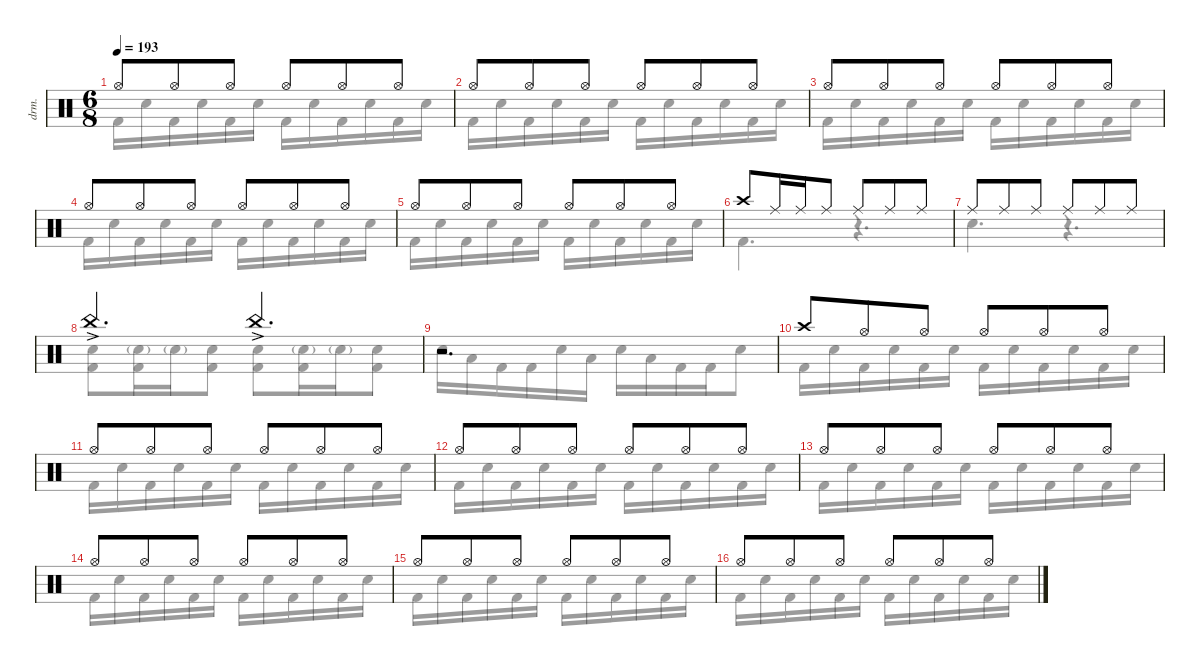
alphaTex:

\defaultSystemsLayout 4
\hideDynamics
\bracketExtendMode nobrackets
\otherSystemsTrackNameOrientation horizontal
\track ("B. Richardson Drums" "drm.") {instrument percussion}
\staff {score}
\articulation defaults
\voice
\ts (6 8)
\tempo 193
\clef neutral
\ks c "Hi-Hat (open)".8{dy mf beam Up} "Hi-Hat (open)".8{beam Up} "Hi-Hat (open)".8{beam Up} "Hi-Hat (open)".8{beam Up} "Hi-Hat (open)".8{beam Up} "Hi-Hat (open)".8{beam Up}
|
"Hi-Hat (open)".8{beam Up} "Hi-Hat (open)".8{beam Up} "Hi-Hat (open)".8{beam Up} "Hi-Hat (open)".8{beam Up} "Hi-Hat (open)".8{beam Up} "Hi-Hat (open)".8{beam Up} |
"Hi-Hat (open)".8{beam Up} "Hi-Hat (open)".8{beam Up} "Hi-Hat (open)".8{beam Up} "Hi-Hat (open)".8{beam Up} "Hi-Hat (open)".8{beam Up} "Hi-Hat (open)".8{beam Up} |
"Hi-Hat (open)".8{beam Up} "Hi-Hat (open)".8{beam Up} "Hi-Hat (open)".8{beam Up} "Hi-Hat (open)".8{beam Up} "Hi-Hat (open)".8{beam Up} "Hi-Hat (open)".8{beam Up} |
"Hi-Hat (open)".8{beam Up} "Hi-Hat (open)".8{beam Up} "Hi-Hat (open)".8{beam Up} "Hi-Hat (open)".8{beam Up} "Hi-Hat (open)".8{beam Up} "Hi-Hat (open)".8{beam Up} |
"Crash high (hit)".8{beam Up} "Ride (middle)".16{beam Up} "Ride (middle)".16{beam Up} "Ride (middle)".8{beam Up} "Ride (middle)".8{beam Up} "Ride (middle)".8{beam Up} "Ride (middle)".8{beam Up} |
"Ride (middle)".8{beam Up} "Ride (middle)".8{beam Up} "Ride (middle)".8{beam Up} "Ride (middle)".8{beam Up} "Ride (middle)".8{beam Up} "Ride (middle)".8{beam Up} |
"China (hit)"{ac}.4{d dy f beam Up} "China (hit)"{ac}.4{d beam Up} |
r.2{d beam Up} |
"Crash high (hit)".8{beam Up} "Hi-Hat (open)".8{dy mf beam Up} "Hi-Hat (open)".8{beam Up} "Hi-Hat (open)".8{beam Up} "Hi-Hat (open)".8{beam Up} "Hi-Hat (open)".8{beam Up} |
"Hi-Hat (open)".8{beam Up} "Hi-Hat (open)".8{beam Up} "Hi-Hat (open)".8{beam Up} "Hi-Hat (open)".8{beam Up} "Hi-Hat (open)".8{beam Up} "Hi-Hat (open)".8{beam Up} |
"Hi-Hat (open)".8{beam Up} "Hi-Hat (open)".8{beam Up} "Hi-Hat (open)".8{beam Up} "Hi-Hat (open)".8{beam Up} "Hi-Hat (open)".8{beam Up} "Hi-Hat (open)".8{beam Up} |
"Hi-Hat (open)".8{beam Up} "Hi-Hat (open)".8{beam Up} "Hi-Hat (open)".8{beam Up} "Hi-Hat (open)".8{beam Up} "Hi-Hat (open)".8{beam Up} "Hi-Hat (open)".8{beam Up} |
"Hi-Hat (open)".8{beam Up} "Hi-Hat (open)".8{beam Up} "Hi-Hat (open)".8{beam Up} "Hi-Hat (open)".8{beam Up} "Hi-Hat (open)".8{beam Up} "Hi-Hat (open)".8{beam Up} |
"Hi-Hat (open)".8{beam Up} "Hi-Hat (open)".8{beam Up} "Hi-Hat (open)".8{beam Up} "Hi-Hat (open)".8{beam Up} "Hi-Hat (open)".8{beam Up} "Hi-Hat (open)".8{beam Up} |
"Hi-Hat (open)".8{beam Up} "Hi-Hat (open)".8{beam Up} "Hi-Hat (open)".8{beam Up} "Hi-Hat (open)".8{beam Up} "Hi-Hat (open)".8{beam Up} "Hi-Hat (open)".8{beam Up}
\voice
\clef neutral
\ottava regular
\simile none
\ks c "Kick (hit) 2".16{dy fff beam Down} "Snare (hit) 2".16{dy f beam Down} "Kick (hit) 2".16{dy fff beam Down} "Snare (hit) 2".16{dy f beam Down} "Kick (hit) 2".16{dy fff beam Down} "Snare (hit) 2".16{dy f beam Down} "Kick (hit) 2".16{dy fff beam Down} "Snare (hit) 2".16{dy f beam Down} "Kick (hit) 2".16{dy fff beam Down} "Snare (hit) 2".16{dy f beam Down} "Kick (hit) 2".16{dy fff beam Down} "Snare (hit) 2".16{dy f beam Down}
|
"Kick (hit) 2".16{dy fff beam Down} "Snare (hit) 2".16{dy f beam Down} "Kick (hit) 2".16{dy fff beam Down} "Snare (hit) 2".16{dy f beam Down} "Kick (hit) 2".16{dy fff beam Down} "Snare (hit) 2".16{dy f beam Down} "Kick (hit) 2".16{dy fff beam Down} "Snare (hit) 2".16{dy f beam Down} "Kick (hit) 2".16{dy fff beam Down} "Snare (hit) 2".16{dy f beam Down} "Kick (hit) 2".16{dy fff beam Down} "Snare (hit) 2".16{dy f beam Down} |
"Kick (hit) 2".16{dy fff beam Down} "Snare (hit) 2".16{dy f beam Down} "Kick (hit) 2".16{dy fff beam Down} "Snare (hit) 2".16{dy f beam Down} "Kick (hit) 2".16{dy fff beam Down} "Snare (hit) 2".16{dy f beam Down} "Kick (hit) 2".16{dy fff beam Down} "Snare (hit) 2".16{dy f beam Down} "Kick (hit) 2".16{dy fff beam Down} "Snare (hit) 2".16{dy f beam Down} "Kick (hit) 2".16{dy fff beam Down} "Snare (hit) 2".16{dy f beam Down} |
"Kick (hit) 2".16{dy fff beam Down} "Snare (hit) 2".16{dy f beam Down} "Kick (hit) 2".16{dy fff beam Down} "Snare (hit) 2".16{dy f beam Down} "Kick (hit) 2".16{dy fff beam Down} "Snare (hit) 2".16{dy f beam Down} "Kick (hit) 2".16{dy fff beam Down} "Snare (hit) 2".16{dy f beam Down} "Kick (hit) 2".16{dy fff beam Down} "Snare (hit) 2".16{dy f beam Down} "Kick (hit) 2".16{dy fff beam Down} "Snare (hit) 2".16{dy f beam Down} |
"Kick (hit) 2".16{dy fff beam Down} "Snare (hit) 2".16{dy f beam Down} "Kick (hit) 2".16{dy fff beam Down} "Snare (hit) 2".16{dy f beam Down} "Kick (hit) 2".16{dy fff beam Down} "Snare (hit) 2".16{dy f beam Down} "Kick (hit) 2".16{dy fff beam Down} "Snare (hit) 2".16{dy f beam Down} "Kick (hit) 2".16{dy fff beam Down} "Snare (hit) 2".16{dy f beam Down} "Kick (hit) 2".16{dy fff beam Down} "Snare (hit) 2".16{dy f beam Down} |
"Kick (hit) 2".4{d dy fff beam Down} r.4{d beam Down} |
"Snare (hit) 2".4{d beam Down} r.4{d beam Down} |
("Snare (hit) 2" "Kick (hit) 2").8{dy f beam Down} ("Snare (hit) 2"{g} "Kick (hit) 2").16{dy fff beam Down} "Snare (hit) 2"{g}.16{dy f beam Down} ("Snare (hit) 2" "Kick (hit) 2").8{beam Down} ("Snare (hit) 2" "Kick (hit) 2").8{beam Down} ("Snare (hit) 2"{g} "Kick (hit) 2").16{dy fff beam Down} "Snare (hit) 2"{g}.16{dy f beam Down} ("Snare (hit) 2" "Kick (hit) 2").8{beam Down} |
"Snare (hit) 2".16{dy fff beam Down} "Low Tom (hit)".16{beam Down} "Kick (hit) 2".16{beam Down} "Kick (hit) 2".16{beam Down} "Snare (hit) 2".16{beam Down} "Low Tom (hit)".16{beam Down} "Snare (hit) 2".16{beam Down} "Low Tom (hit)".16{beam Down} "Kick (hit) 2".16{beam Down} "Kick (hit) 2".16{beam Down} "Snare (hit) 2".8{beam Down} |
"Kick (hit) 2".16{beam Down} "Snare (hit) 2".16{dy f beam Down} "Kick (hit) 2".16{dy fff beam Down} "Snare (hit) 2".16{dy f beam Down} "Kick (hit) 2".16{dy fff beam Down} "Snare (hit) 2".16{dy f beam Down} "Kick (hit) 2".16{dy fff beam Down} "Snare (hit) 2".16{dy f beam Down} "Kick (hit) 2".16{dy fff beam Down} "Snare (hit) 2".16{dy f beam Down} "Kick (hit) 2".16{dy fff beam Down} "Snare (hit) 2".16{dy f beam Down} |
"Kick (hit) 2".16{dy fff beam Down} "Snare (hit) 2".16{dy f beam Down} "Kick (hit) 2".16{dy fff beam Down} "Snare (hit) 2".16{dy f beam Down} "Kick (hit) 2".16{dy fff beam Down} "Snare (hit) 2".16{dy f beam Down} "Kick (hit) 2".16{dy fff beam Down} "Snare (hit) 2".16{dy f beam Down} "Kick (hit) 2".16{dy fff beam Down} "Snare (hit) 2".16{dy f beam Down} "Kick (hit) 2".16{dy fff beam Down} "Snare (hit) 2".16{dy f beam Down} |
"Kick (hit) 2".16{dy fff beam Down} "Snare (hit) 2".16{dy f beam Down} "Kick (hit) 2".16{dy fff beam Down} "Snare (hit) 2".16{dy f beam Down} "Kick (hit) 2".16{dy fff beam Down} "Snare (hit) 2".16{dy f beam Down} "Kick (hit) 2".16{dy fff beam Down} "Snare (hit) 2".16{dy f beam Down} "Kick (hit) 2".16{dy fff beam Down} "Snare (hit) 2".16{dy f beam Down} "Kick (hit) 2".16{dy fff beam Down} "Snare (hit) 2".16{dy f beam Down} |
"Kick (hit) 2".16{dy fff beam Down} "Snare (hit) 2".16{dy f beam Down} "Kick (hit) 2".16{dy fff beam Down} "Snare (hit) 2".16{dy f beam Down} "Kick (hit) 2".16{dy fff beam Down} "Snare (hit) 2".16{dy f beam Down} "Kick (hit) 2".16{dy fff beam Down} "Snare (hit) 2".16{dy f beam Down} "Kick (hit) 2".16{dy fff beam Down} "Snare (hit) 2".16{dy f beam Down} "Kick (hit) 2".16{dy fff beam Down} "Snare (hit) 2".16{dy f beam Down} |
"Kick (hit) 2".16{dy fff beam Down} "Snare (hit) 2".16{dy f beam Down} "Kick (hit) 2".16{dy fff beam Down} "Snare (hit) 2".16{dy f beam Down} "Kick (hit) 2".16{dy fff beam Down} "Snare (hit) 2".16{dy f beam Down} "Kick (hit) 2".16{dy fff beam Down} "Snare (hit) 2".16{dy f beam Down} "Kick (hit) 2".16{dy fff beam Down} "Snare (hit) 2".16{dy f beam Down} "Kick (hit) 2".16{dy fff beam Down} "Snare (hit) 2".16{dy f beam Down} |
"Kick (hit) 2".16{dy fff beam Down} "Snare (hit) 2".16{dy f beam Down} "Kick (hit) 2".16{dy fff beam Down} "Snare (hit) 2".16{dy f beam Down} "Kick (hit) 2".16{dy fff beam Down} "Snare (hit) 2".16{dy f beam Down} "Kick (hit) 2".16{dy fff beam Down} "Snare (hit) 2".16{dy f beam Down} "Kick (hit) 2".16{dy fff beam Down} "Snare (hit) 2".16{dy f beam Down} "Kick (hit) 2".16{dy fff beam Down} "Snare (hit) 2".16{dy f beam Down} |
"Kick (hit) 2".16{dy fff beam Down} "Snare (hit) 2".16{dy f beam Down} "Kick (hit) 2".16{dy fff beam Down} "Snare (hit) 2".16{dy f beam Down} "Kick (hit) 2".16{dy fff beam Down} "Snare (hit) 2".16{dy f beam Down} "Kick (hit) 2".16{dy fff beam Down} "Snare (hit) 2".16{dy f beam Down} "Kick (hit) 2".16{dy fff beam Down} "Snare (hit) 2".16{dy f beam Down} "Kick (hit) 2".16{dy fff beam Down} "Snare (hit) 2".16{dy f beam Down}
